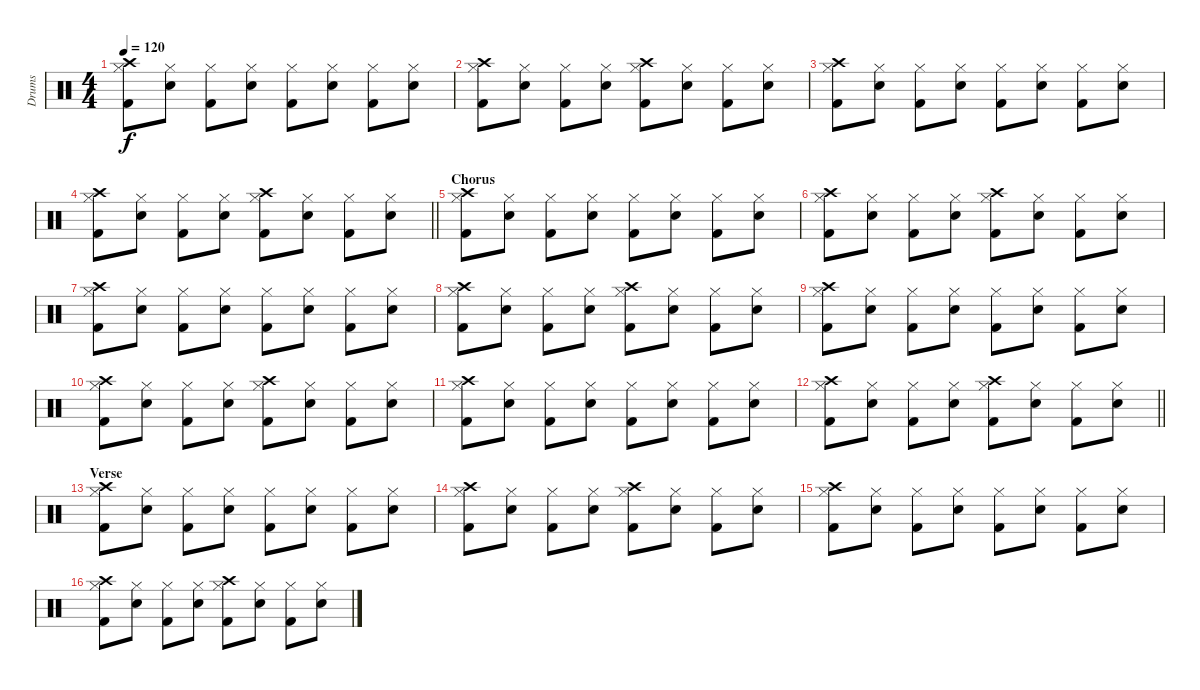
\track ("Drums" "Drums") {instrument percussion}
\staff
\articulation defaults
\ts (4 4)
\tempo 120
\clef neutral
\ks c
("Hi-Hat (closed)" "Kick (hit) 2" "Crash high (hit)").8{dy f} ("Hi-Hat (closed)" "Electric Snare (hit)").8 ("Hi-Hat (closed)" "Kick (hit) 2").8 ("Hi-Hat (closed)" "Electric Snare (hit)").8 ("Hi-Hat (closed)" "Kick (hit) 2").8 ("Hi-Hat (closed)" "Electric Snare (hit)").8 ("Hi-Hat (closed)" "Kick (hit) 2").8 ("Hi-Hat (closed)" "Electric Snare (hit)").8 |
("Hi-Hat (closed)" "Kick (hit) 2" "Crash high (hit)").8 ("Hi-Hat (closed)" "Electric Snare (hit)").8 ("Hi-Hat (closed)" "Kick (hit) 2").8 ("Hi-Hat (closed)" "Electric Snare (hit)").8 ("Hi-Hat (closed)" "Kick (hit) 2" "Crash high (hit)").8 ("Hi-Hat (closed)" "Electric Snare (hit)").8 ("Hi-Hat (closed)" "Kick (hit) 2").8 ("Hi-Hat (closed)" "Electric Snare (hit)").8 |
("Hi-Hat (closed)" "Kick (hit) 2" "Crash high (hit)").8 ("Hi-Hat (closed)" "Electric Snare (hit)").8 ("Hi-Hat (closed)" "Kick (hit) 2").8 ("Hi-Hat (closed)" "Electric Snare (hit)").8 ("Hi-Hat (closed)" "Kick (hit) 2").8 ("Hi-Hat (closed)" "Electric Snare (hit)").8 ("Hi-Hat (closed)" "Kick (hit) 2").8 ("Hi-Hat (closed)" "Electric Snare (hit)").8 |
\barLineRight lightlight
("Hi-Hat (closed)" "Kick (hit) 2" "Crash high (hit)").8 ("Hi-Hat (closed)" "Electric Snare (hit)").8 ("Hi-Hat (closed)" "Kick (hit) 2").8 ("Hi-Hat (closed)" "Electric Snare (hit)").8 ("Hi-Hat (closed)" "Kick (hit) 2" "Crash high (hit)").8 ("Hi-Hat (closed)" "Electric Snare (hit)").8 ("Hi-Hat (closed)" "Kick (hit) 2").8 ("Hi-Hat (closed)" "Electric Snare (hit)").8 |
\section ("" "Chorus")
("Hi-Hat (closed)" "Kick (hit) 2" "Crash high (hit)").8 ("Hi-Hat (closed)" "Electric Snare (hit)").8 ("Hi-Hat (closed)" "Kick (hit) 2").8 ("Hi-Hat (closed)" "Electric Snare (hit)").8 ("Hi-Hat (closed)" "Kick (hit) 2").8 ("Hi-Hat (closed)" "Electric Snare (hit)").8 ("Hi-Hat (closed)" "Kick (hit) 2").8 ("Hi-Hat (closed)" "Electric Snare (hit)").8 |
("Hi-Hat (closed)" "Kick (hit) 2" "Crash high (hit)").8 ("Hi-Hat (closed)" "Electric Snare (hit)").8 ("Hi-Hat (closed)" "Kick (hit) 2").8 ("Hi-Hat (closed)" "Electric Snare (hit)").8 ("Hi-Hat (closed)" "Kick (hit) 2" "Crash high (hit)").8 ("Hi-Hat (closed)" "Electric Snare (hit)").8 ("Hi-Hat (closed)" "Kick (hit) 2").8 ("Hi-Hat (closed)" "Electric Snare (hit)").8 |
("Hi-Hat (closed)" "Kick (hit) 2" "Crash high (hit)").8 ("Hi-Hat (closed)" "Electric Snare (hit)").8 ("Hi-Hat (closed)" "Kick (hit) 2").8 ("Hi-Hat (closed)" "Electric Snare (hit)").8 ("Hi-Hat (closed)" "Kick (hit) 2").8 ("Hi-Hat (closed)" "Electric Snare (hit)").8 ("Hi-Hat (closed)" "Kick (hit) 2").8 ("Hi-Hat (closed)" "Electric Snare (hit)").8 |
("Hi-Hat (closed)" "Kick (hit) 2" "Crash high (hit)").8 ("Hi-Hat (closed)" "Electric Snare (hit)").8 ("Hi-Hat (closed)" "Kick (hit) 2").8 ("Hi-Hat (closed)" "Electric Snare (hit)").8 ("Hi-Hat (closed)" "Kick (hit) 2" "Crash high (hit)").8 ("Hi-Hat (closed)" "Electric Snare (hit)").8 ("Hi-Hat (closed)" "Kick (hit) 2").8 ("Hi-Hat (closed)" "Electric Snare (hit)").8 |
("Hi-Hat (closed)" "Kick (hit) 2" "Crash high (hit)").8 ("Hi-Hat (closed)" "Electric Snare (hit)").8 ("Hi-Hat (closed)" "Kick (hit) 2").8 ("Hi-Hat (closed)" "Electric Snare (hit)").8 ("Hi-Hat (closed)" "Kick (hit) 2").8 ("Hi-Hat (closed)" "Electric Snare (hit)").8 ("Hi-Hat (closed)" "Kick (hit) 2").8 ("Hi-Hat (closed)" "Electric Snare (hit)").8 |
("Hi-Hat (closed)" "Kick (hit) 2" "Crash high (hit)").8 ("Hi-Hat (closed)" "Electric Snare (hit)").8 ("Hi-Hat (closed)" "Kick (hit) 2").8 ("Hi-Hat (closed)" "Electric Snare (hit)").8 ("Hi-Hat (closed)" "Kick (hit) 2" "Crash high (hit)").8 ("Hi-Hat (closed)" "Electric Snare (hit)").8 ("Hi-Hat (closed)" "Kick (hit) 2").8 ("Hi-Hat (closed)" "Electric Snare (hit)").8 |
("Hi-Hat (closed)" "Kick (hit) 2" "Crash high (hit)").8 ("Hi-Hat (closed)" "Electric Snare (hit)").8 ("Hi-Hat (closed)" "Kick (hit) 2").8 ("Hi-Hat (closed)" "Electric Snare (hit)").8 ("Hi-Hat (closed)" "Kick (hit) 2").8 ("Hi-Hat (closed)" "Electric Snare (hit)").8 ("Hi-Hat (closed)" "Kick (hit) 2").8 ("Hi-Hat (closed)" "Electric Snare (hit)").8 |
\barLineRight lightlight
("Hi-Hat (closed)" "Kick (hit) 2" "Crash high (hit)").8 ("Hi-Hat (closed)" "Electric Snare (hit)").8 ("Hi-Hat (closed)" "Kick (hit) 2").8 ("Hi-Hat (closed)" "Electric Snare (hit)").8 ("Hi-Hat (closed)" "Kick (hit) 2" "Crash high (hit)").8 ("Hi-Hat (closed)" "Electric Snare (hit)").8 ("Hi-Hat (closed)" "Kick (hit) 2").8 ("Hi-Hat (closed)" "Electric Snare (hit)").8 |
\section ("" "Verse")
("Hi-Hat (closed)" "Kick (hit) 2" "Crash high (hit)").8 ("Hi-Hat (closed)" "Electric Snare (hit)").8 ("Hi-Hat (closed)" "Kick (hit) 2").8 ("Hi-Hat (closed)" "Electric Snare (hit)").8 ("Hi-Hat (closed)" "Kick (hit) 2").8 ("Hi-Hat (closed)" "Electric Snare (hit)").8 ("Hi-Hat (closed)" "Kick (hit) 2").8 ("Hi-Hat (closed)" "Electric Snare (hit)").8 |
("Hi-Hat (closed)" "Kick (hit) 2" "Crash high (hit)").8 ("Hi-Hat (closed)" "Electric Snare (hit)").8 ("Hi-Hat (closed)" "Kick (hit) 2").8 ("Hi-Hat (closed)" "Electric Snare (hit)").8 ("Hi-Hat (closed)" "Kick (hit) 2" "Crash high (hit)").8 ("Hi-Hat (closed)" "Electric Snare (hit)").8 ("Hi-Hat (closed)" "Kick (hit) 2").8 ("Hi-Hat (closed)" "Electric Snare (hit)").8 |
("Hi-Hat (closed)" "Kick (hit) 2" "Crash high (hit)").8 ("Hi-Hat (closed)" "Electric Snare (hit)").8 ("Hi-Hat (closed)" "Kick (hit) 2").8 ("Hi-Hat (closed)" "Electric Snare (hit)").8 ("Hi-Hat (closed)" "Kick (hit) 2").8 ("Hi-Hat (closed)" "Electric Snare (hit)").8 ("Hi-Hat (closed)" "Kick (hit) 2").8 ("Hi-Hat (closed)" "Electric Snare (hit)").8 |
("Hi-Hat (closed)" "Kick (hit) 2" "Crash high (hit)").8 ("Hi-Hat (closed)" "Electric Snare (hit)").8 ("Hi-Hat (closed)" "Kick (hit) 2").8 ("Hi-Hat (closed)" "Electric Snare (hit)").8 ("Hi-Hat (closed)" "Kick (hit) 2" "Crash high (hit)").8 ("Hi-Hat (closed)" "Electric Snare (hit)").8 ("Hi-Hat (closed)" "Kick (hit) 2").8 ("Hi-Hat (closed)" "Electric Snare (hit)").8
